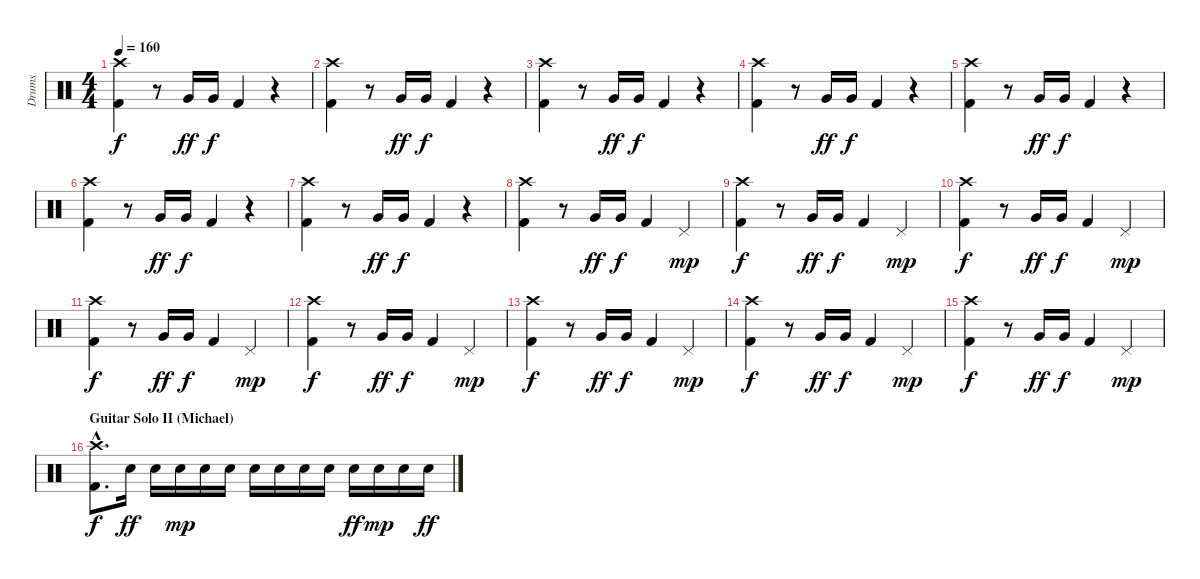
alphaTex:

\track ("Drums" "Drums") {instrument percussion}
\staff {score}
\articulation defaults
\ts (4 4)
\tempo 160
\clef neutral
\ks c
("Crash high (hit)" "Kick (hit) 2").4{dy f} r.8 "Very Low Tom (hit)".16{dy ff} "Very Low Tom (hit)".16{dy f} "Kick (hit) 2".4 r.4 |
("Crash high (hit)" "Kick (hit) 2").4 r.8 "Very Low Tom (hit)".16{dy ff} "Very Low Tom (hit)".16{dy f} "Kick (hit) 2".4 r.4 |
("Crash high (hit)" "Kick (hit) 2").4 r.8 "Very Low Tom (hit)".16{dy ff} "Very Low Tom (hit)".16{dy f} "Kick (hit) 2".4 r.4 |
("Crash high (hit)" "Kick (hit) 2").4 r.8 "Very Low Tom (hit)".16{dy ff} "Very Low Tom (hit)".16{dy f} "Kick (hit) 2".4 r.4 |
("Crash high (hit)" "Kick (hit) 2").4 r.8 "Very Low Tom (hit)".16{dy ff} "Very Low Tom (hit)".16{dy f} "Kick (hit) 2".4 r.4 |
("Crash high (hit)" "Kick (hit) 2").4 r.8 "Very Low Tom (hit)".16{dy ff} "Very Low Tom (hit)".16{dy f} "Kick (hit) 2".4 r.4 |
("Crash high (hit)" "Kick (hit) 2").4 r.8 "Very Low Tom (hit)".16{dy ff} "Very Low Tom (hit)".16{dy f} "Kick (hit) 2".4 r.4 |
("Crash high (hit)" "Kick (hit) 2").4 r.8 "Very Low Tom (hit)".16{dy ff} "Very Low Tom (hit)".16{dy f} "Kick (hit) 2".4 "Pedal Hi-Hat (hit)".4{dy mp} |
("Crash high (hit)" "Kick (hit) 2").4{dy f} r.8 "Very Low Tom (hit)".16{dy ff} "Very Low Tom (hit)".16{dy f} "Kick (hit) 2".4 "Pedal Hi-Hat (hit)".4{dy mp} |
("Crash high (hit)" "Kick (hit) 2").4{dy f} r.8 "Very Low Tom (hit)".16{dy ff} "Very Low Tom (hit)".16{dy f} "Kick (hit) 2".4 "Pedal Hi-Hat (hit)".4{dy mp} |
("Crash high (hit)" "Kick (hit) 2").4{dy f} r.8 "Very Low Tom (hit)".16{dy ff} "Very Low Tom (hit)".16{dy f} "Kick (hit) 2".4 "Pedal Hi-Hat (hit)".4{dy mp} |
("Crash high (hit)" "Kick (hit) 2").4{dy f} r.8 "Very Low Tom (hit)".16{dy ff} "Very Low Tom (hit)".16{dy f} "Kick (hit) 2".4 "Pedal Hi-Hat (hit)".4{dy mp} |
("Crash high (hit)" "Kick (hit) 2").4{dy f} r.8 "Very Low Tom (hit)".16{dy ff} "Very Low Tom (hit)".16{dy f} "Kick (hit) 2".4 "Pedal Hi-Hat (hit)".4{dy mp} |
("Crash high (hit)" "Kick (hit) 2").4{dy f} r.8 "Very Low Tom (hit)".16{dy ff} "Very Low Tom (hit)".16{dy f} "Kick (hit) 2".4 "Pedal Hi-Hat (hit)".4{dy mp} |
("Crash high (hit)" "Kick (hit) 2").4{dy f} r.8 "Very Low Tom (hit)".16{dy ff} "Very Low Tom (hit)".16{dy f} "Kick (hit) 2".4 "Pedal Hi-Hat (hit)".4{dy mp} |
\section ("" "Guitar Solo II (Michael)")
("Crash high (hit)"{hac} "Kick (hit) 2"{hac}).8{d dy f} "Snare (hit) 2".16{dy ff} "Snare (hit) 2".16 "Snare (hit) 2".16{dy mp} "Snare (hit) 2".16 "Snare (hit) 2".16 "Snare (hit) 2".16 "Snare (hit) 2".16 "Snare (hit) 2".16 "Snare (hit) 2".16 "Snare (hit) 2".16{dy ff} "Snare (hit) 2".16{dy mp} "Snare (hit) 2".16 "Snare (hit) 2".16{dy ff}
